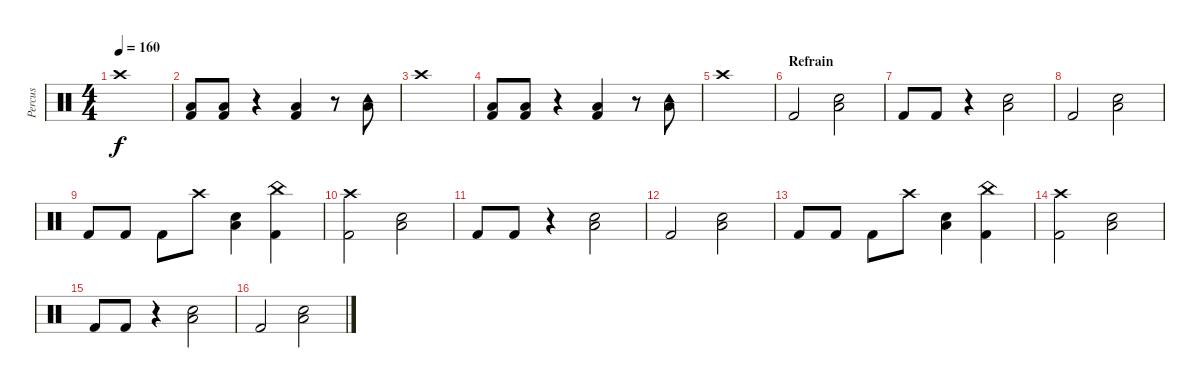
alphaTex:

\track ("Percus" "Percus") {instrument percussion}
\staff {score}
\articulation defaults
\ts (4 4)
\tempo 160
\clef neutral
\ks c "Crash high (hit)".1{dy f}
|
("Kick (hit) 2" "Low Tom (hit)").8 ("Kick (hit) 2" "Low Tom (hit)").8 r.4 ("Kick (hit) 2" "Low Tom (hit)").4 r.8 ("Tambourine (hit)" "Low Floor Tom (hit)").8 |
"Crash high (hit)".1 |
("Kick (hit) 2" "Low Tom (hit)").8 ("Kick (hit) 2" "Low Tom (hit)").8 r.4 ("Kick (hit) 2" "Low Tom (hit)").4 r.8 ("Tambourine (hit)" "Low Floor Tom (hit)").8 |
"Crash high (hit)".1 |
\section ("" "Refrain")
"Kick (hit) 2".2 ("Snare (hit) 2" "Low Floor Tom (hit)").2 |
"Kick (hit) 2".8 "Kick (hit) 2".8 r.4 ("Snare (hit) 2" "Low Floor Tom (hit)").2 |
"Kick (hit) 2".2 ("Snare (hit) 2" "Low Floor Tom (hit)").2 |
"Kick (hit) 2".8 "Kick (hit) 2".8 "Kick (hit) 2".8 "Crash high (hit)".8 ("Snare (hit) 2" "Low Floor Tom (hit)").4 ("China (hit)" "Kick (hit) 2").4 |
("Crash high (hit)" "Kick (hit) 2").2 ("Snare (hit) 2" "Low Floor Tom (hit)").2 |
"Kick (hit) 2".8 "Kick (hit) 2".8 r.4 ("Snare (hit) 2" "Low Floor Tom (hit)").2 |
"Kick (hit) 2".2 ("Snare (hit) 2" "Low Floor Tom (hit)").2 |
"Kick (hit) 2".8 "Kick (hit) 2".8 "Kick (hit) 2".8 "Crash high (hit)".8 ("Snare (hit) 2" "Low Floor Tom (hit)").4 ("China (hit)" "Kick (hit) 2").4 |
("Crash high (hit)" "Kick (hit) 2").2 ("Snare (hit) 2" "Low Floor Tom (hit)").2 |
"Kick (hit) 2".8 "Kick (hit) 2".8 r.4 ("Snare (hit) 2" "Low Floor Tom (hit)").2 |
"Kick (hit) 2".2 ("Snare (hit) 2" "Low Floor Tom (hit)").2
